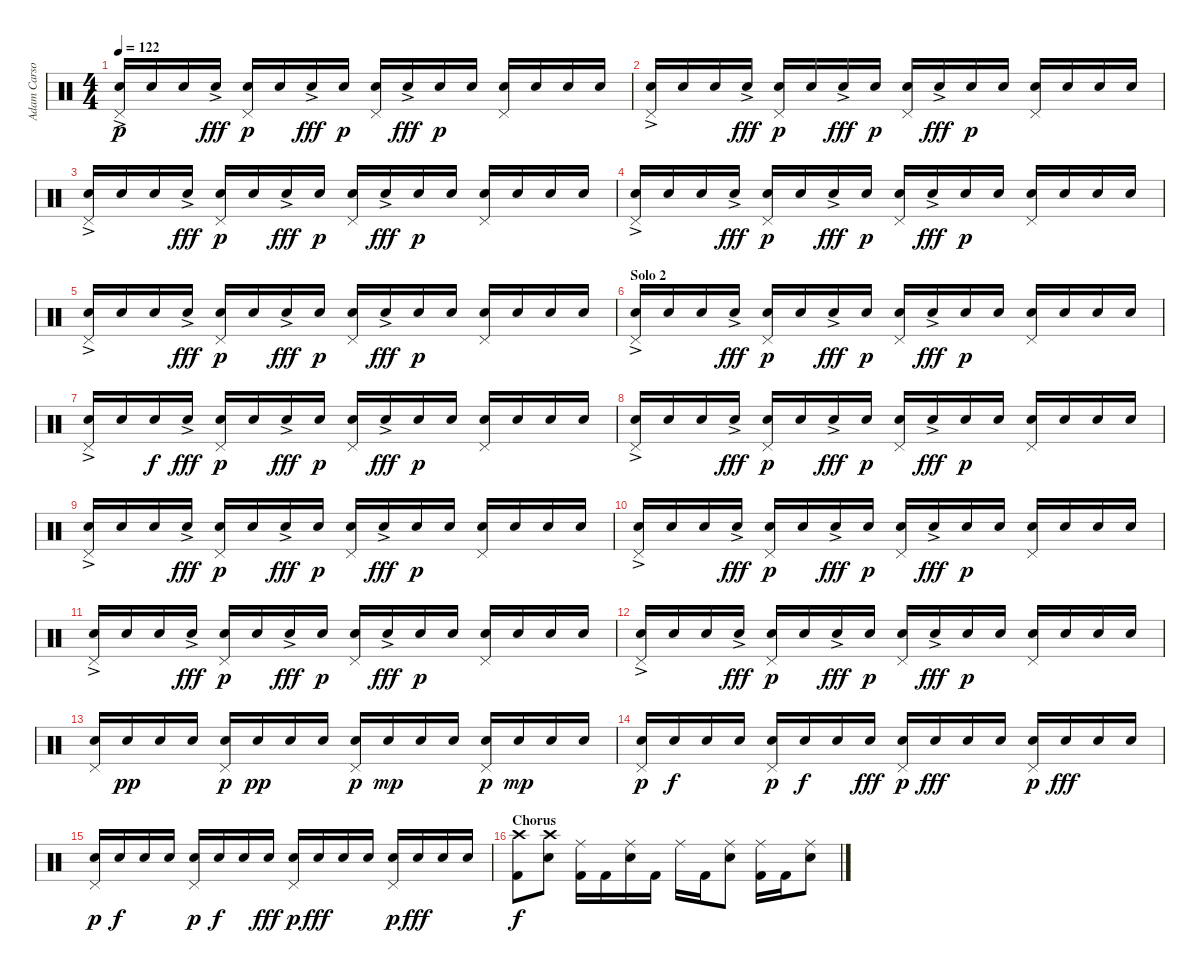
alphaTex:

\track ("Adam Carson" "Adam Carso") {instrument percussion}
\staff {score}
\articulation defaults
\ts (4 4)
\tempo 122
\clef neutral
\ks c
("Electric Snare (hit)"{ac} "Pedal Hi-Hat (hit)").16{dy p} "Electric Snare (hit)".16 "Electric Snare (hit)".16 "Electric Snare (hit)"{ac}.16{dy fff} ("Electric Snare (hit)" "Pedal Hi-Hat (hit)").16{dy p} "Electric Snare (hit)".16 "Electric Snare (hit)"{ac}.16{dy fff} "Electric Snare (hit)".16{dy p} ("Electric Snare (hit)" "Pedal Hi-Hat (hit)").16 "Electric Snare (hit)"{ac}.16{dy fff} "Electric Snare (hit)".16{dy p} "Electric Snare (hit)".16 ("Electric Snare (hit)" "Pedal Hi-Hat (hit)").16 "Electric Snare (hit)".16 "Electric Snare (hit)".16 "Electric Snare (hit)".16 |
("Electric Snare (hit)"{ac} "Pedal Hi-Hat (hit)").16 "Electric Snare (hit)".16 "Electric Snare (hit)".16 "Electric Snare (hit)"{ac}.16{dy fff} ("Electric Snare (hit)" "Pedal Hi-Hat (hit)").16{dy p} "Electric Snare (hit)".16 "Electric Snare (hit)"{ac}.16{dy fff} "Electric Snare (hit)".16{dy p} ("Electric Snare (hit)" "Pedal Hi-Hat (hit)").16 "Electric Snare (hit)"{ac}.16{dy fff} "Electric Snare (hit)".16{dy p} "Electric Snare (hit)".16 ("Electric Snare (hit)" "Pedal Hi-Hat (hit)").16 "Electric Snare (hit)".16 "Electric Snare (hit)".16 "Electric Snare (hit)".16 |
("Electric Snare (hit)"{ac} "Pedal Hi-Hat (hit)").16 "Electric Snare (hit)".16 "Electric Snare (hit)".16 "Electric Snare (hit)"{ac}.16{dy fff} ("Electric Snare (hit)" "Pedal Hi-Hat (hit)").16{dy p} "Electric Snare (hit)".16 "Electric Snare (hit)"{ac}.16{dy fff} "Electric Snare (hit)".16{dy p} ("Electric Snare (hit)" "Pedal Hi-Hat (hit)").16 "Electric Snare (hit)"{ac}.16{dy fff} "Electric Snare (hit)".16{dy p} "Electric Snare (hit)".16 ("Electric Snare (hit)" "Pedal Hi-Hat (hit)").16 "Electric Snare (hit)".16 "Electric Snare (hit)".16 "Electric Snare (hit)".16 |
("Electric Snare (hit)"{ac} "Pedal Hi-Hat (hit)").16 "Electric Snare (hit)".16 "Electric Snare (hit)".16 "Electric Snare (hit)"{ac}.16{dy fff} ("Electric Snare (hit)" "Pedal Hi-Hat (hit)").16{dy p} "Electric Snare (hit)".16 "Electric Snare (hit)"{ac}.16{dy fff} "Electric Snare (hit)".16{dy p} ("Electric Snare (hit)" "Pedal Hi-Hat (hit)").16 "Electric Snare (hit)"{ac}.16{dy fff} "Electric Snare (hit)".16{dy p} "Electric Snare (hit)".16 ("Electric Snare (hit)" "Pedal Hi-Hat (hit)").16 "Electric Snare (hit)".16 "Electric Snare (hit)".16 "Electric Snare (hit)".16 |
("Electric Snare (hit)"{ac} "Pedal Hi-Hat (hit)").16 "Electric Snare (hit)".16 "Electric Snare (hit)".16 "Electric Snare (hit)"{ac}.16{dy fff} ("Electric Snare (hit)" "Pedal Hi-Hat (hit)").16{dy p} "Electric Snare (hit)".16 "Electric Snare (hit)"{ac}.16{dy fff} "Electric Snare (hit)".16{dy p} ("Electric Snare (hit)" "Pedal Hi-Hat (hit)").16 "Electric Snare (hit)"{ac}.16{dy fff} "Electric Snare (hit)".16{dy p} "Electric Snare (hit)".16 ("Electric Snare (hit)" "Pedal Hi-Hat (hit)").16 "Electric Snare (hit)".16 "Electric Snare (hit)".16 "Electric Snare (hit)".16 |
\section ("" "Solo 2")
("Electric Snare (hit)"{ac} "Pedal Hi-Hat (hit)").16 "Electric Snare (hit)".16 "Electric Snare (hit)".16 "Electric Snare (hit)"{ac}.16{dy fff} ("Electric Snare (hit)" "Pedal Hi-Hat (hit)").16{dy p} "Electric Snare (hit)".16 "Electric Snare (hit)"{ac}.16{dy fff} "Electric Snare (hit)".16{dy p} ("Electric Snare (hit)" "Pedal Hi-Hat (hit)").16 "Electric Snare (hit)"{ac}.16{dy fff} "Electric Snare (hit)".16{dy p} "Electric Snare (hit)".16 ("Electric Snare (hit)" "Pedal Hi-Hat (hit)").16 "Electric Snare (hit)".16 "Electric Snare (hit)".16 "Electric Snare (hit)".16 |
("Electric Snare (hit)"{ac} "Pedal Hi-Hat (hit)").16 "Electric Snare (hit)".16 "Electric Snare (hit)".16{dy f} "Electric Snare (hit)"{ac}.16{dy fff} ("Electric Snare (hit)" "Pedal Hi-Hat (hit)").16{dy p} "Electric Snare (hit)".16 "Electric Snare (hit)"{ac}.16{dy fff} "Electric Snare (hit)".16{dy p} ("Electric Snare (hit)" "Pedal Hi-Hat (hit)").16 "Electric Snare (hit)"{ac}.16{dy fff} "Electric Snare (hit)".16{dy p} "Electric Snare (hit)".16 ("Electric Snare (hit)" "Pedal Hi-Hat (hit)").16 "Electric Snare (hit)".16 "Electric Snare (hit)".16 "Electric Snare (hit)".16 |
("Electric Snare (hit)"{ac} "Pedal Hi-Hat (hit)").16 "Electric Snare (hit)".16 "Electric Snare (hit)".16 "Electric Snare (hit)"{ac}.16{dy fff} ("Electric Snare (hit)" "Pedal Hi-Hat (hit)").16{dy p} "Electric Snare (hit)".16 "Electric Snare (hit)"{ac}.16{dy fff} "Electric Snare (hit)".16{dy p} ("Electric Snare (hit)" "Pedal Hi-Hat (hit)").16 "Electric Snare (hit)"{ac}.16{dy fff} "Electric Snare (hit)".16{dy p} "Electric Snare (hit)".16 ("Electric Snare (hit)" "Pedal Hi-Hat (hit)").16 "Electric Snare (hit)".16 "Electric Snare (hit)".16 "Electric Snare (hit)".16 |
("Electric Snare (hit)"{ac} "Pedal Hi-Hat (hit)").16 "Electric Snare (hit)".16 "Electric Snare (hit)".16 "Electric Snare (hit)"{ac}.16{dy fff} ("Electric Snare (hit)" "Pedal Hi-Hat (hit)").16{dy p} "Electric Snare (hit)".16 "Electric Snare (hit)"{ac}.16{dy fff} "Electric Snare (hit)".16{dy p} ("Electric Snare (hit)" "Pedal Hi-Hat (hit)").16 "Electric Snare (hit)"{ac}.16{dy fff} "Electric Snare (hit)".16{dy p} "Electric Snare (hit)".16 ("Electric Snare (hit)" "Pedal Hi-Hat (hit)").16 "Electric Snare (hit)".16 "Electric Snare (hit)".16 "Electric Snare (hit)".16 |
("Electric Snare (hit)"{ac} "Pedal Hi-Hat (hit)").16 "Electric Snare (hit)".16 "Electric Snare (hit)".16 "Electric Snare (hit)"{ac}.16{dy fff} ("Electric Snare (hit)" "Pedal Hi-Hat (hit)").16{dy p} "Electric Snare (hit)".16 "Electric Snare (hit)"{ac}.16{dy fff} "Electric Snare (hit)".16{dy p} ("Electric Snare (hit)" "Pedal Hi-Hat (hit)").16 "Electric Snare (hit)"{ac}.16{dy fff} "Electric Snare (hit)".16{dy p} "Electric Snare (hit)".16 ("Electric Snare (hit)" "Pedal Hi-Hat (hit)").16 "Electric Snare (hit)".16 "Electric Snare (hit)".16 "Electric Snare (hit)".16 |
("Electric Snare (hit)"{ac} "Pedal Hi-Hat (hit)").16 "Electric Snare (hit)".16 "Electric Snare (hit)".16 "Electric Snare (hit)"{ac}.16{dy fff} ("Electric Snare (hit)" "Pedal Hi-Hat (hit)").16{dy p} "Electric Snare (hit)".16 "Electric Snare (hit)"{ac}.16{dy fff} "Electric Snare (hit)".16{dy p} ("Electric Snare (hit)" "Pedal Hi-Hat (hit)").16 "Electric Snare (hit)"{ac}.16{dy fff} "Electric Snare (hit)".16{dy p} "Electric Snare (hit)".16 ("Electric Snare (hit)" "Pedal Hi-Hat (hit)").16 "Electric Snare (hit)".16 "Electric Snare (hit)".16 "Electric Snare (hit)".16 |
("Electric Snare (hit)"{ac} "Pedal Hi-Hat (hit)").16 "Electric Snare (hit)".16 "Electric Snare (hit)".16 "Electric Snare (hit)"{ac}.16{dy fff} ("Electric Snare (hit)" "Pedal Hi-Hat (hit)").16{dy p} "Electric Snare (hit)".16 "Electric Snare (hit)"{ac}.16{dy fff} "Electric Snare (hit)".16{dy p} ("Electric Snare (hit)" "Pedal Hi-Hat (hit)").16 "Electric Snare (hit)"{ac}.16{dy fff} "Electric Snare (hit)".16{dy p} "Electric Snare (hit)".16 ("Electric Snare (hit)" "Pedal Hi-Hat (hit)").16 "Electric Snare (hit)".16 "Electric Snare (hit)".16 "Electric Snare (hit)".16 |
("Electric Snare (hit)" "Pedal Hi-Hat (hit)").16 "Electric Snare (hit)".16{dy pp} "Electric Snare (hit)".16 "Electric Snare (hit)".16 ("Electric Snare (hit)" "Pedal Hi-Hat (hit)").16{dy p} "Electric Snare (hit)".16{dy pp} "Electric Snare (hit)".16 "Electric Snare (hit)".16 ("Electric Snare (hit)" "Pedal Hi-Hat (hit)").16{dy p} "Electric Snare (hit)".16{dy mp} "Electric Snare (hit)".16 "Electric Snare (hit)".16 ("Electric Snare (hit)" "Pedal Hi-Hat (hit)").16{dy p} "Electric Snare (hit)".16{dy mp} "Electric Snare (hit)".16 "Electric Snare (hit)".16 |
("Electric Snare (hit)" "Pedal Hi-Hat (hit)").16{dy p} "Electric Snare (hit)".16{dy f} "Electric Snare (hit)".16 "Electric Snare (hit)".16 ("Electric Snare (hit)" "Pedal Hi-Hat (hit)").16{dy p} "Electric Snare (hit)".16{dy f} "Electric Snare (hit)".16 "Electric Snare (hit)".16{dy fff} ("Electric Snare (hit)" "Pedal Hi-Hat (hit)").16{dy p} "Electric Snare (hit)".16{dy fff} "Electric Snare (hit)".16 "Electric Snare (hit)".16 ("Electric Snare (hit)" "Pedal Hi-Hat (hit)").16{dy p} "Electric Snare (hit)".16{dy fff} "Electric Snare (hit)".16 "Electric Snare (hit)".16 |
("Electric Snare (hit)" "Pedal Hi-Hat (hit)").16{dy p} "Electric Snare (hit)".16{dy f} "Electric Snare (hit)".16 "Electric Snare (hit)".16 ("Electric Snare (hit)" "Pedal Hi-Hat (hit)").16{dy p} "Electric Snare (hit)".16{dy f} "Electric Snare (hit)".16 "Electric Snare (hit)".16{dy fff} ("Electric Snare (hit)" "Pedal Hi-Hat (hit)").16{dy p} "Electric Snare (hit)".16{dy fff} "Electric Snare (hit)".16 "Electric Snare (hit)".16 ("Electric Snare (hit)" "Pedal Hi-Hat (hit)").16{dy p} "Electric Snare (hit)".16{dy fff} "Electric Snare (hit)".16 "Electric Snare (hit)".16 |
\section ("" "Chorus")
("Crash high (hit)" "Kick (hit) 2").8{dy f} ("Crash high (hit)" "Electric Snare (hit)").8 ("Ride (middle)" "Kick (hit) 2").16 "Kick (hit) 2".16 ("Ride (middle)" "Electric Snare (hit)").16 "Kick (hit) 2".16 "Ride (middle)".16 "Kick (hit) 2".16 ("Ride (middle)" "Electric Snare (hit)").8 ("Ride (middle)" "Kick (hit) 2").16 "Kick (hit) 2".16 ("Ride (middle)" "Electric Snare (hit)").8
